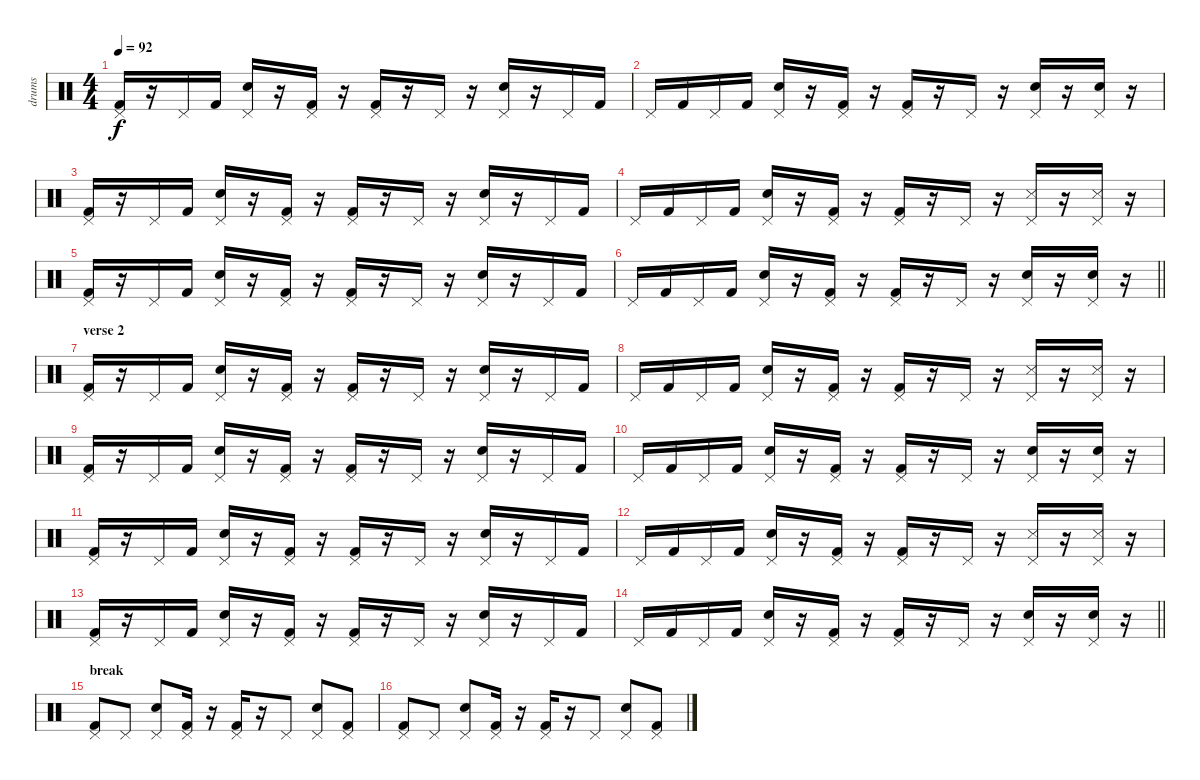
\track ("drums" "drums") {instrument percussion}
\staff {score}
\articulation defaults
\ts (4 4)
\tempo 92
\clef neutral
\ks c
("Kick (hit) 2" "Pedal Hi-Hat (hit)").16{dy f} r.16 "Pedal Hi-Hat (hit)".16 "Kick (hit) 2".16 ("Electric Snare (hit)" "Pedal Hi-Hat (hit)").16 r.16 ("Kick (hit) 2" "Pedal Hi-Hat (hit)").16 r.16 ("Kick (hit) 2" "Pedal Hi-Hat (hit)").16 r.16 "Pedal Hi-Hat (hit)".16 r.16 ("Electric Snare (hit)" "Pedal Hi-Hat (hit)").16 r.16 "Pedal Hi-Hat (hit)".16 "Kick (hit) 2".16 |
"Pedal Hi-Hat (hit)".16 "Kick (hit) 2".16 "Pedal Hi-Hat (hit)".16 "Kick (hit) 2".16 ("Electric Snare (hit)" "Pedal Hi-Hat (hit)").16 r.16 ("Kick (hit) 2" "Pedal Hi-Hat (hit)").16 r.16 ("Kick (hit) 2" "Pedal Hi-Hat (hit)").16 r.16 "Pedal Hi-Hat (hit)".16 r.16 ("Electric Snare (hit)" "Pedal Hi-Hat (hit)").16 r.16 ("Electric Snare (hit)" "Pedal Hi-Hat (hit)").16 r.16 |
("Kick (hit) 2" "Pedal Hi-Hat (hit)").16 r.16 "Pedal Hi-Hat (hit)".16 "Kick (hit) 2".16 ("Electric Snare (hit)" "Pedal Hi-Hat (hit)").16 r.16 ("Kick (hit) 2" "Pedal Hi-Hat (hit)").16 r.16 ("Kick (hit) 2" "Pedal Hi-Hat (hit)").16 r.16 "Pedal Hi-Hat (hit)".16 r.16 ("Electric Snare (hit)" "Pedal Hi-Hat (hit)").16 r.16 "Pedal Hi-Hat (hit)".16 "Kick (hit) 2".16 |
"Pedal Hi-Hat (hit)".16 "Kick (hit) 2".16 "Pedal Hi-Hat (hit)".16 "Kick (hit) 2".16 ("Electric Snare (hit)" "Pedal Hi-Hat (hit)").16 r.16 ("Kick (hit) 2" "Pedal Hi-Hat (hit)").16 r.16 ("Kick (hit) 2" "Pedal Hi-Hat (hit)").16 r.16 "Pedal Hi-Hat (hit)".16 r.16 ("Snare (side stick) 3" "Pedal Hi-Hat (hit)").16 r.16 ("Snare (side stick) 3" "Pedal Hi-Hat (hit)").16 r.16 |
("Kick (hit) 2" "Pedal Hi-Hat (hit)").16 r.16 "Pedal Hi-Hat (hit)".16 "Kick (hit) 2".16 ("Electric Snare (hit)" "Pedal Hi-Hat (hit)").16 r.16 ("Kick (hit) 2" "Pedal Hi-Hat (hit)").16 r.16 ("Kick (hit) 2" "Pedal Hi-Hat (hit)").16 r.16 "Pedal Hi-Hat (hit)".16 r.16 ("Electric Snare (hit)" "Pedal Hi-Hat (hit)").16 r.16 "Pedal Hi-Hat (hit)".16 "Kick (hit) 2".16 |
\barLineRight lightlight "Pedal Hi-Hat (hit)".16 "Kick (hit) 2".16 "Pedal Hi-Hat (hit)".16 "Kick (hit) 2".16
("Electric Snare (hit)" "Pedal Hi-Hat (hit)").16 r.16 ("Kick (hit) 2" "Pedal Hi-Hat (hit)").16 r.16 ("Kick (hit) 2" "Pedal Hi-Hat (hit)").16 r.16 "Pedal Hi-Hat (hit)".16 r.16 ("Electric Snare (hit)" "Pedal Hi-Hat (hit)").16 r.16 ("Electric Snare (hit)" "Pedal Hi-Hat (hit)").16 r.16 |
\section ("" "verse 2")
("Kick (hit) 2" "Pedal Hi-Hat (hit)").16 r.16 "Pedal Hi-Hat (hit)".16 "Kick (hit) 2".16 ("Electric Snare (hit)" "Pedal Hi-Hat (hit)").16 r.16 ("Kick (hit) 2" "Pedal Hi-Hat (hit)").16 r.16 ("Kick (hit) 2" "Pedal Hi-Hat (hit)").16 r.16 "Pedal Hi-Hat (hit)".16 r.16 ("Electric Snare (hit)" "Pedal Hi-Hat (hit)").16 r.16 "Pedal Hi-Hat (hit)".16 "Kick (hit) 2".16 |
"Pedal Hi-Hat (hit)".16 "Kick (hit) 2".16 "Pedal Hi-Hat (hit)".16 "Kick (hit) 2".16 ("Electric Snare (hit)" "Pedal Hi-Hat (hit)").16 r.16 ("Kick (hit) 2" "Pedal Hi-Hat (hit)").16 r.16 ("Kick (hit) 2" "Pedal Hi-Hat (hit)").16 r.16 "Pedal Hi-Hat (hit)".16 r.16 ("Snare (side stick) 3" "Pedal Hi-Hat (hit)").16 r.16 ("Snare (side stick) 3" "Pedal Hi-Hat (hit)").16 r.16 |
("Kick (hit) 2" "Pedal Hi-Hat (hit)").16 r.16 "Pedal Hi-Hat (hit)".16 "Kick (hit) 2".16 ("Electric Snare (hit)" "Pedal Hi-Hat (hit)").16 r.16 ("Kick (hit) 2" "Pedal Hi-Hat (hit)").16 r.16 ("Kick (hit) 2" "Pedal Hi-Hat (hit)").16 r.16 "Pedal Hi-Hat (hit)".16 r.16 ("Electric Snare (hit)" "Pedal Hi-Hat (hit)").16 r.16 "Pedal Hi-Hat (hit)".16 "Kick (hit) 2".16 |
"Pedal Hi-Hat (hit)".16 "Kick (hit) 2".16 "Pedal Hi-Hat (hit)".16 "Kick (hit) 2".16 ("Electric Snare (hit)" "Pedal Hi-Hat (hit)").16 r.16 ("Kick (hit) 2" "Pedal Hi-Hat (hit)").16 r.16 ("Kick (hit) 2" "Pedal Hi-Hat (hit)").16 r.16 "Pedal Hi-Hat (hit)".16 r.16 ("Electric Snare (hit)" "Pedal Hi-Hat (hit)").16 r.16 ("Electric Snare (hit)" "Pedal Hi-Hat (hit)").16 r.16 |
("Kick (hit) 2" "Pedal Hi-Hat (hit)").16 r.16 "Pedal Hi-Hat (hit)".16 "Kick (hit) 2".16 ("Electric Snare (hit)" "Pedal Hi-Hat (hit)").16 r.16 ("Kick (hit) 2" "Pedal Hi-Hat (hit)").16 r.16 ("Kick (hit) 2" "Pedal Hi-Hat (hit)").16 r.16 "Pedal Hi-Hat (hit)".16 r.16 ("Electric Snare (hit)" "Pedal Hi-Hat (hit)").16 r.16 "Pedal Hi-Hat (hit)".16 "Kick (hit) 2".16 |
"Pedal Hi-Hat (hit)".16 "Kick (hit) 2".16 "Pedal Hi-Hat (hit)".16 "Kick (hit) 2".16 ("Electric Snare (hit)" "Pedal Hi-Hat (hit)").16 r.16 ("Kick (hit) 2" "Pedal Hi-Hat (hit)").16 r.16 ("Kick (hit) 2" "Pedal Hi-Hat (hit)").16 r.16 "Pedal Hi-Hat (hit)".16 r.16 ("Snare (side stick) 3" "Pedal Hi-Hat (hit)").16 r.16 ("Snare (side stick) 3" "Pedal Hi-Hat (hit)").16 r.16 |
("Kick (hit) 2" "Pedal Hi-Hat (hit)").16 r.16 "Pedal Hi-Hat (hit)".16 "Kick (hit) 2".16 ("Electric Snare (hit)" "Pedal Hi-Hat (hit)").16 r.16 ("Kick (hit) 2" "Pedal Hi-Hat (hit)").16 r.16 ("Kick (hit) 2" "Pedal Hi-Hat (hit)").16 r.16 "Pedal Hi-Hat (hit)".16 r.16 ("Electric Snare (hit)" "Pedal Hi-Hat (hit)").16 r.16 "Pedal Hi-Hat (hit)".16 "Kick (hit) 2".16 |
\barLineRight lightlight "Pedal Hi-Hat (hit)".16 "Kick (hit) 2".16 "Pedal Hi-Hat (hit)".16 "Kick (hit) 2".16
("Electric Snare (hit)" "Pedal Hi-Hat (hit)").16 r.16 ("Kick (hit) 2" "Pedal Hi-Hat (hit)").16 r.16 ("Kick (hit) 2" "Pedal Hi-Hat (hit)").16 r.16 "Pedal Hi-Hat (hit)".16 r.16 ("Electric Snare (hit)" "Pedal Hi-Hat (hit)").16 r.16 ("Electric Snare (hit)" "Pedal Hi-Hat (hit)").16 r.16 |
\section ("" "break ")
("Kick (hit) 2" "Pedal Hi-Hat (hit)").8 "Pedal Hi-Hat (hit)".8 ("Electric Snare (hit)" "Pedal Hi-Hat (hit)").8 ("Kick (hit) 2" "Pedal Hi-Hat (hit)").16 r.16 ("Kick (hit) 2" "Pedal Hi-Hat (hit)").16 r.16 "Pedal Hi-Hat (hit)".8 ("Electric Snare (hit)" "Pedal Hi-Hat (hit)").8 ("Kick (hit) 2" "Pedal Hi-Hat (hit)").8 |
("Kick (hit) 2" "Pedal Hi-Hat (hit)").8 "Pedal Hi-Hat (hit)".8 ("Electric Snare (hit)" "Pedal Hi-Hat (hit)").8 ("Kick (hit) 2" "Pedal Hi-Hat (hit)").16 r.16 ("Kick (hit) 2" "Pedal Hi-Hat (hit)").16 r.16 "Pedal Hi-Hat (hit)".8 ("Electric Snare (hit)" "Pedal Hi-Hat (hit)").8 ("Kick (hit) 2" "Pedal Hi-Hat (hit)").8
